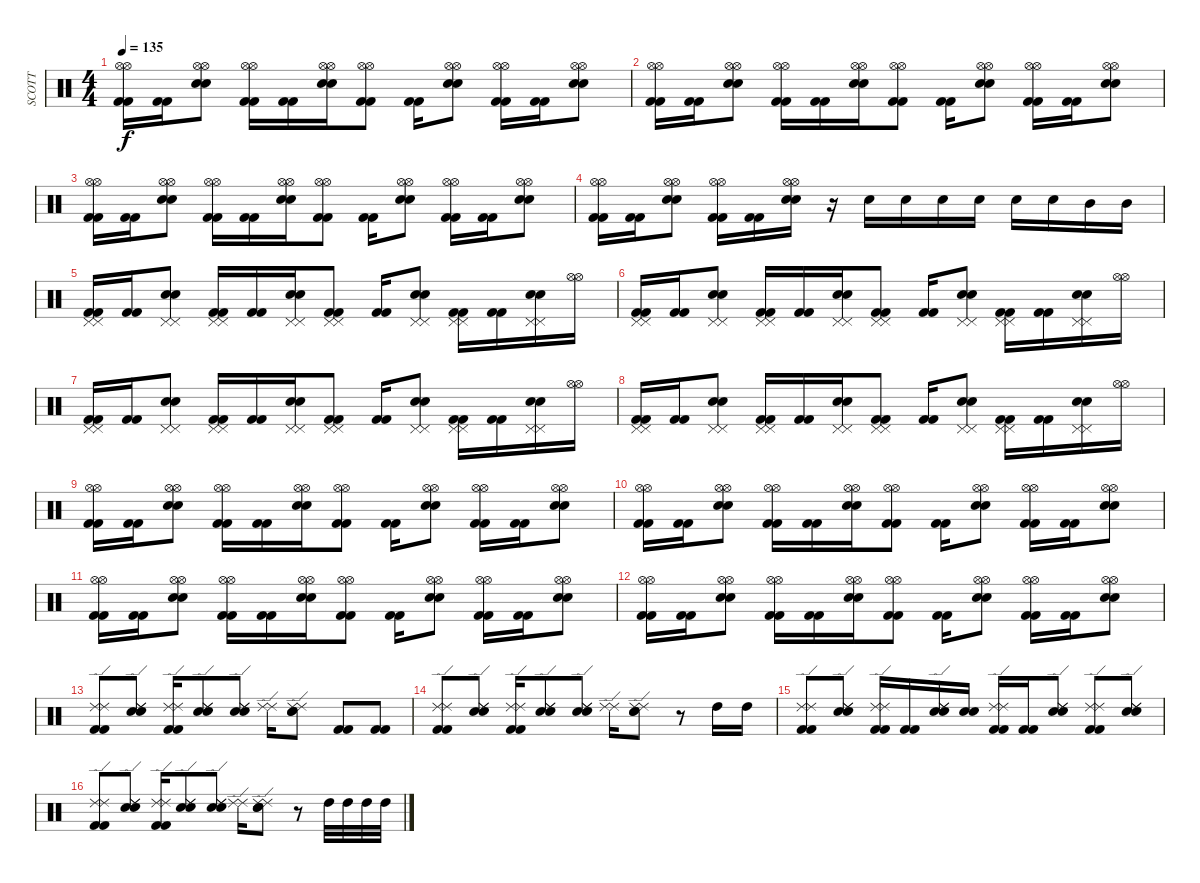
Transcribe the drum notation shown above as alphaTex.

\track ("SCOTT" "SCOTT") {instrument percussion}
\staff {score}
\articulation defaults
\ts (4 4)
\tempo 135
\clef neutral
\ks c
("Kick (hit) 2" "Kick (hit) 2" "Hi-Hat (open)" "Hi-Hat (open)").16{dy f} ("Kick (hit) 2" "Kick (hit) 2").16 ("Snare (hit) 2" "Snare (hit) 2" "Hi-Hat (open)" "Hi-Hat (open)").8 ("Kick (hit) 2" "Kick (hit) 2" "Hi-Hat (open)" "Hi-Hat (open)").16 ("Kick (hit) 2" "Kick (hit) 2").16 ("Snare (hit) 2" "Snare (hit) 2" "Hi-Hat (open)" "Hi-Hat (open)").16 ("Kick (hit) 2" "Kick (hit) 2" "Hi-Hat (open)" "Hi-Hat (open)").8 ("Kick (hit) 2" "Kick (hit) 2").16 ("Snare (hit) 2" "Snare (hit) 2" "Hi-Hat (open)" "Hi-Hat (open)").8 ("Kick (hit) 2" "Kick (hit) 2" "Hi-Hat (open)" "Hi-Hat (open)").16 ("Kick (hit) 2" "Kick (hit) 2").16 ("Snare (hit) 2" "Snare (hit) 2" "Hi-Hat (open)" "Hi-Hat (open)").8 |
("Kick (hit) 2" "Kick (hit) 2" "Hi-Hat (open)" "Hi-Hat (open)").16 ("Kick (hit) 2" "Kick (hit) 2").16 ("Snare (hit) 2" "Snare (hit) 2" "Hi-Hat (open)" "Hi-Hat (open)").8 ("Kick (hit) 2" "Kick (hit) 2" "Hi-Hat (open)" "Hi-Hat (open)").16 ("Kick (hit) 2" "Kick (hit) 2").16 ("Snare (hit) 2" "Snare (hit) 2" "Hi-Hat (open)" "Hi-Hat (open)").16 ("Kick (hit) 2" "Kick (hit) 2" "Hi-Hat (open)" "Hi-Hat (open)").8 ("Kick (hit) 2" "Kick (hit) 2").16 ("Snare (hit) 2" "Snare (hit) 2" "Hi-Hat (open)" "Hi-Hat (open)").8 ("Kick (hit) 2" "Kick (hit) 2" "Hi-Hat (open)" "Hi-Hat (open)").16 ("Kick (hit) 2" "Kick (hit) 2").16 ("Snare (hit) 2" "Snare (hit) 2" "Hi-Hat (open)" "Hi-Hat (open)").8 |
("Kick (hit) 2" "Kick (hit) 2" "Hi-Hat (open)" "Hi-Hat (open)").16 ("Kick (hit) 2" "Kick (hit) 2").16 ("Snare (hit) 2" "Snare (hit) 2" "Hi-Hat (open)" "Hi-Hat (open)").8 ("Kick (hit) 2" "Kick (hit) 2" "Hi-Hat (open)" "Hi-Hat (open)").16 ("Kick (hit) 2" "Kick (hit) 2").16 ("Snare (hit) 2" "Snare (hit) 2" "Hi-Hat (open)" "Hi-Hat (open)").16 ("Kick (hit) 2" "Kick (hit) 2" "Hi-Hat (open)" "Hi-Hat (open)").8 ("Kick (hit) 2" "Kick (hit) 2").16 ("Snare (hit) 2" "Snare (hit) 2" "Hi-Hat (open)" "Hi-Hat (open)").8 ("Kick (hit) 2" "Kick (hit) 2" "Hi-Hat (open)" "Hi-Hat (open)").16 ("Kick (hit) 2" "Kick (hit) 2").16 ("Snare (hit) 2" "Snare (hit) 2" "Hi-Hat (open)" "Hi-Hat (open)").8 |
("Kick (hit) 2" "Kick (hit) 2" "Hi-Hat (open)" "Hi-Hat (open)").16 ("Kick (hit) 2" "Kick (hit) 2").16 ("Snare (hit) 2" "Snare (hit) 2" "Hi-Hat (open)" "Hi-Hat (open)").8 ("Kick (hit) 2" "Kick (hit) 2" "Hi-Hat (open)" "Hi-Hat (open)").16 ("Kick (hit) 2" "Kick (hit) 2").16 ("Snare (hit) 2" "Snare (hit) 2" "Hi-Hat (open)" "Hi-Hat (open)").16 r.16 "Snare (hit) 2".16 "Snare (hit) 2".16 "Snare (hit) 2".16 "Snare (hit) 2".16 "Snare (hit) 2".16 "Snare (hit) 2".16 "Mid Tom (hit)".16 "Mid Tom (hit)".16 |
("Kick (hit) 2" "Kick (hit) 2" "Pedal Hi-Hat (hit)" "Pedal Hi-Hat (hit)").16 ("Kick (hit) 2" "Kick (hit) 2").16 ("Snare (hit) 2" "Snare (hit) 2" "Pedal Hi-Hat (hit)" "Pedal Hi-Hat (hit)").8 ("Kick (hit) 2" "Kick (hit) 2" "Pedal Hi-Hat (hit)" "Pedal Hi-Hat (hit)").16 ("Kick (hit) 2" "Kick (hit) 2").16 ("Snare (hit) 2" "Snare (hit) 2" "Pedal Hi-Hat (hit)" "Pedal Hi-Hat (hit)").16 ("Kick (hit) 2" "Kick (hit) 2" "Pedal Hi-Hat (hit)" "Pedal Hi-Hat (hit)").8 ("Kick (hit) 2" "Kick (hit) 2").16 ("Snare (hit) 2" "Snare (hit) 2" "Pedal Hi-Hat (hit)" "Pedal Hi-Hat (hit)").8 ("Kick (hit) 2" "Kick (hit) 2" "Pedal Hi-Hat (hit)" "Pedal Hi-Hat (hit)").16 ("Kick (hit) 2" "Kick (hit) 2").16 ("Snare (hit) 2" "Snare (hit) 2" "Pedal Hi-Hat (hit)" "Pedal Hi-Hat (hit)").16 ("Hi-Hat (open)" "Hi-Hat (open)").16 |
("Kick (hit) 2" "Kick (hit) 2" "Pedal Hi-Hat (hit)" "Pedal Hi-Hat (hit)").16 ("Kick (hit) 2" "Kick (hit) 2").16 ("Snare (hit) 2" "Snare (hit) 2" "Pedal Hi-Hat (hit)" "Pedal Hi-Hat (hit)").8 ("Kick (hit) 2" "Kick (hit) 2" "Pedal Hi-Hat (hit)" "Pedal Hi-Hat (hit)").16 ("Kick (hit) 2" "Kick (hit) 2").16 ("Snare (hit) 2" "Snare (hit) 2" "Pedal Hi-Hat (hit)" "Pedal Hi-Hat (hit)").16 ("Kick (hit) 2" "Kick (hit) 2" "Pedal Hi-Hat (hit)" "Pedal Hi-Hat (hit)").8 ("Kick (hit) 2" "Kick (hit) 2").16 ("Snare (hit) 2" "Snare (hit) 2" "Pedal Hi-Hat (hit)" "Pedal Hi-Hat (hit)").8 ("Kick (hit) 2" "Kick (hit) 2" "Pedal Hi-Hat (hit)" "Pedal Hi-Hat (hit)").16 ("Kick (hit) 2" "Kick (hit) 2").16 ("Snare (hit) 2" "Snare (hit) 2" "Pedal Hi-Hat (hit)" "Pedal Hi-Hat (hit)").16 ("Hi-Hat (open)" "Hi-Hat (open)").16 |
("Kick (hit) 2" "Kick (hit) 2" "Pedal Hi-Hat (hit)" "Pedal Hi-Hat (hit)").16 ("Kick (hit) 2" "Kick (hit) 2").16 ("Snare (hit) 2" "Snare (hit) 2" "Pedal Hi-Hat (hit)" "Pedal Hi-Hat (hit)").8 ("Kick (hit) 2" "Kick (hit) 2" "Pedal Hi-Hat (hit)" "Pedal Hi-Hat (hit)").16 ("Kick (hit) 2" "Kick (hit) 2").16 ("Snare (hit) 2" "Snare (hit) 2" "Pedal Hi-Hat (hit)" "Pedal Hi-Hat (hit)").16 ("Kick (hit) 2" "Kick (hit) 2" "Pedal Hi-Hat (hit)" "Pedal Hi-Hat (hit)").8 ("Kick (hit) 2" "Kick (hit) 2").16 ("Snare (hit) 2" "Snare (hit) 2" "Pedal Hi-Hat (hit)" "Pedal Hi-Hat (hit)").8 ("Kick (hit) 2" "Kick (hit) 2" "Pedal Hi-Hat (hit)" "Pedal Hi-Hat (hit)").16 ("Kick (hit) 2" "Kick (hit) 2").16 ("Snare (hit) 2" "Snare (hit) 2" "Pedal Hi-Hat (hit)" "Pedal Hi-Hat (hit)").16 ("Hi-Hat (open)" "Hi-Hat (open)").16 |
("Kick (hit) 2" "Kick (hit) 2" "Pedal Hi-Hat (hit)" "Pedal Hi-Hat (hit)").16 ("Kick (hit) 2" "Kick (hit) 2").16 ("Snare (hit) 2" "Snare (hit) 2" "Pedal Hi-Hat (hit)" "Pedal Hi-Hat (hit)").8 ("Kick (hit) 2" "Kick (hit) 2" "Pedal Hi-Hat (hit)" "Pedal Hi-Hat (hit)").16 ("Kick (hit) 2" "Kick (hit) 2").16 ("Snare (hit) 2" "Snare (hit) 2" "Pedal Hi-Hat (hit)" "Pedal Hi-Hat (hit)").16 ("Kick (hit) 2" "Kick (hit) 2" "Pedal Hi-Hat (hit)" "Pedal Hi-Hat (hit)").8 ("Kick (hit) 2" "Kick (hit) 2").16 ("Snare (hit) 2" "Snare (hit) 2" "Pedal Hi-Hat (hit)" "Pedal Hi-Hat (hit)").8 ("Kick (hit) 2" "Kick (hit) 2" "Pedal Hi-Hat (hit)" "Pedal Hi-Hat (hit)").16 ("Kick (hit) 2" "Kick (hit) 2").16 ("Snare (hit) 2" "Snare (hit) 2" "Pedal Hi-Hat (hit)" "Pedal Hi-Hat (hit)").16 ("Hi-Hat (open)" "Hi-Hat (open)").16 |
("Kick (hit) 2" "Kick (hit) 2" "Hi-Hat (open)" "Hi-Hat (open)").16 ("Kick (hit) 2" "Kick (hit) 2").16 ("Snare (hit) 2" "Snare (hit) 2" "Hi-Hat (open)" "Hi-Hat (open)").8 ("Kick (hit) 2" "Kick (hit) 2" "Hi-Hat (open)" "Hi-Hat (open)").16 ("Kick (hit) 2" "Kick (hit) 2").16 ("Snare (hit) 2" "Snare (hit) 2" "Hi-Hat (open)" "Hi-Hat (open)").16 ("Kick (hit) 2" "Kick (hit) 2" "Hi-Hat (open)" "Hi-Hat (open)").8 ("Kick (hit) 2" "Kick (hit) 2").16 ("Snare (hit) 2" "Snare (hit) 2" "Hi-Hat (open)" "Hi-Hat (open)").8 ("Kick (hit) 2" "Kick (hit) 2" "Hi-Hat (open)" "Hi-Hat (open)").16 ("Kick (hit) 2" "Kick (hit) 2").16 ("Snare (hit) 2" "Snare (hit) 2" "Hi-Hat (open)" "Hi-Hat (open)").8 |
("Kick (hit) 2" "Kick (hit) 2" "Hi-Hat (open)" "Hi-Hat (open)").16 ("Kick (hit) 2" "Kick (hit) 2").16 ("Snare (hit) 2" "Snare (hit) 2" "Hi-Hat (open)" "Hi-Hat (open)").8 ("Kick (hit) 2" "Kick (hit) 2" "Hi-Hat (open)" "Hi-Hat (open)").16 ("Kick (hit) 2" "Kick (hit) 2").16 ("Snare (hit) 2" "Snare (hit) 2" "Hi-Hat (open)" "Hi-Hat (open)").16 ("Kick (hit) 2" "Kick (hit) 2" "Hi-Hat (open)" "Hi-Hat (open)").8 ("Kick (hit) 2" "Kick (hit) 2").16 ("Snare (hit) 2" "Snare (hit) 2" "Hi-Hat (open)" "Hi-Hat (open)").8 ("Kick (hit) 2" "Kick (hit) 2" "Hi-Hat (open)" "Hi-Hat (open)").16 ("Kick (hit) 2" "Kick (hit) 2").16 ("Snare (hit) 2" "Snare (hit) 2" "Hi-Hat (open)" "Hi-Hat (open)").8 |
("Kick (hit) 2" "Kick (hit) 2" "Hi-Hat (open)" "Hi-Hat (open)").16 ("Kick (hit) 2" "Kick (hit) 2").16 ("Snare (hit) 2" "Snare (hit) 2" "Hi-Hat (open)" "Hi-Hat (open)").8 ("Kick (hit) 2" "Kick (hit) 2" "Hi-Hat (open)" "Hi-Hat (open)").16 ("Kick (hit) 2" "Kick (hit) 2").16 ("Snare (hit) 2" "Snare (hit) 2" "Hi-Hat (open)" "Hi-Hat (open)").16 ("Kick (hit) 2" "Kick (hit) 2" "Hi-Hat (open)" "Hi-Hat (open)").8 ("Kick (hit) 2" "Kick (hit) 2").16 ("Snare (hit) 2" "Snare (hit) 2" "Hi-Hat (open)" "Hi-Hat (open)").8 ("Kick (hit) 2" "Kick (hit) 2" "Hi-Hat (open)" "Hi-Hat (open)").16 ("Kick (hit) 2" "Kick (hit) 2").16 ("Snare (hit) 2" "Snare (hit) 2" "Hi-Hat (open)" "Hi-Hat (open)").8 |
("Kick (hit) 2" "Kick (hit) 2" "Hi-Hat (open)" "Hi-Hat (open)").16 ("Kick (hit) 2" "Kick (hit) 2").16 ("Snare (hit) 2" "Snare (hit) 2" "Hi-Hat (open)" "Hi-Hat (open)").8 ("Kick (hit) 2" "Kick (hit) 2" "Hi-Hat (open)" "Hi-Hat (open)").16 ("Kick (hit) 2" "Kick (hit) 2").16 ("Snare (hit) 2" "Snare (hit) 2" "Hi-Hat (open)" "Hi-Hat (open)").16 ("Kick (hit) 2" "Kick (hit) 2" "Hi-Hat (open)" "Hi-Hat (open)").8 ("Kick (hit) 2" "Kick (hit) 2").16 ("Snare (hit) 2" "Snare (hit) 2" "Hi-Hat (open)" "Hi-Hat (open)").8 ("Kick (hit) 2" "Kick (hit) 2" "Hi-Hat (open)" "Hi-Hat (open)").16 ("Kick (hit) 2" "Kick (hit) 2").16 ("Snare (hit) 2" "Snare (hit) 2" "Hi-Hat (open)" "Hi-Hat (open)").8 |
("Ride (edge) 2" "Ride (edge) 2" "Kick (hit) 2" "Kick (hit) 2").8 ("Ride (edge) 2" "Ride (edge) 2" "Snare (hit) 2" "Snare (hit) 2").8 ("Ride (edge) 2" "Ride (edge) 2" "Kick (hit) 2" "Kick (hit) 2").16 ("Ride (edge) 2" "Ride (edge) 2" "Snare (hit) 2" "Snare (hit) 2").8 ("Ride (edge) 2" "Ride (edge) 2" "Snare (hit) 2" "Snare (hit) 2").8 ("Ride (edge) 2" "Ride (edge) 2").16 ("Ride (edge) 2" "Ride (edge) 2" "Snare (hit) 2" "Snare (hit) 2").8 ("Kick (hit) 2" "Kick (hit) 2").8 ("Kick (hit) 2" "Kick (hit) 2").8 |
("Ride (edge) 2" "Ride (edge) 2" "Kick (hit) 2" "Kick (hit) 2").8 ("Ride (edge) 2" "Ride (edge) 2" "Snare (hit) 2" "Snare (hit) 2").8 ("Ride (edge) 2" "Ride (edge) 2" "Kick (hit) 2" "Kick (hit) 2").16 ("Ride (edge) 2" "Ride (edge) 2" "Snare (hit) 2" "Snare (hit) 2").8 ("Ride (edge) 2" "Ride (edge) 2" "Snare (hit) 2" "Snare (hit) 2").8 ("Ride (edge) 2" "Ride (edge) 2").16 ("Ride (edge) 2" "Ride (edge) 2" "Snare (hit) 2" "Snare (hit) 2").8 r.8 "High Tom (hit)".16 "High Tom (hit)".16 |
("Ride (edge) 2" "Ride (edge) 2" "Kick (hit) 2" "Kick (hit) 2").8 ("Ride (edge) 2" "Ride (edge) 2" "Snare (hit) 2" "Snare (hit) 2").8 ("Ride (edge) 2" "Ride (edge) 2" "Kick (hit) 2" "Kick (hit) 2").16 ("Kick (hit) 2" "Kick (hit) 2").16 ("Ride (edge) 2" "Ride (edge) 2" "Snare (hit) 2" "Snare (hit) 2").16 ("Snare (hit) 2" "Snare (hit) 2").16 ("Ride (edge) 2" "Ride (edge) 2" "Kick (hit) 2" "Kick (hit) 2").16 ("Kick (hit) 2" "Kick (hit) 2").16 ("Ride (edge) 2" "Ride (edge) 2" "Snare (hit) 2" "Snare (hit) 2").8 ("Ride (edge) 2" "Ride (edge) 2" "Kick (hit) 2" "Kick (hit) 2").8 ("Ride (edge) 2" "Ride (edge) 2" "Snare (hit) 2" "Snare (hit) 2").8 |
("Ride (edge) 2" "Ride (edge) 2" "Kick (hit) 2" "Kick (hit) 2").8 ("Ride (edge) 2" "Ride (edge) 2" "Snare (hit) 2" "Snare (hit) 2").8 ("Ride (edge) 2" "Ride (edge) 2" "Kick (hit) 2" "Kick (hit) 2").16 ("Ride (edge) 2" "Ride (edge) 2" "Snare (hit) 2" "Snare (hit) 2").8 ("Ride (edge) 2" "Ride (edge) 2" "Snare (hit) 2" "Snare (hit) 2").8 ("Ride (edge) 2" "Ride (edge) 2").16 ("Ride (edge) 2" "Ride (edge) 2" "Snare (hit) 2" "Snare (hit) 2").8 r.8 "High Tom (hit)".32 "High Tom (hit)".32 "High Tom (hit)".32 "High Tom (hit)".32
